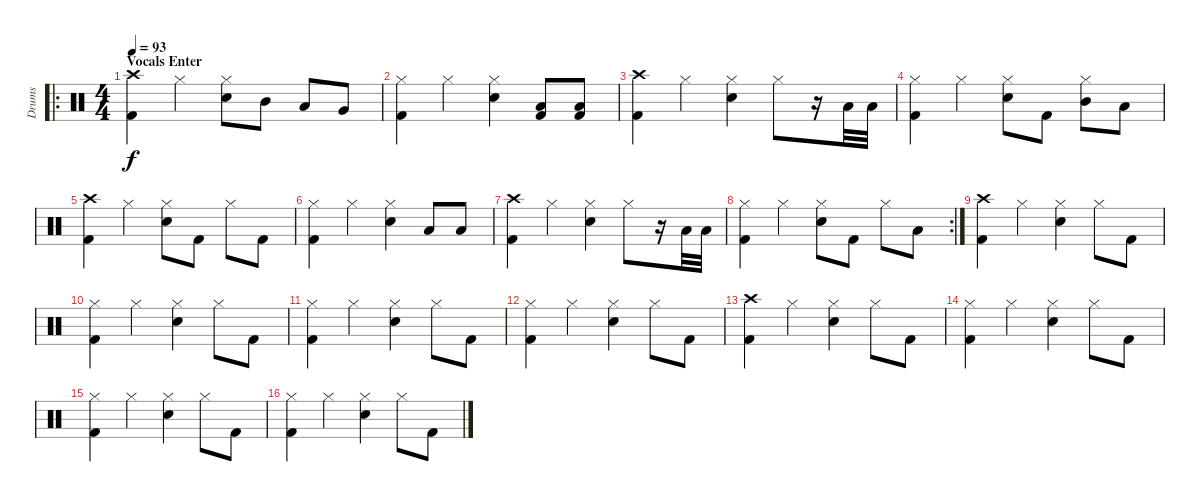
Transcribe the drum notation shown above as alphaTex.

\track ("Drums" "Drums") {instrument percussion}
\staff {score}
\articulation defaults
\ro
\ts (4 4)
\section ("" "Vocals Enter")
\tempo 93
\clef neutral
\ks c
("Crash high (hit)" "Kick (hit) 2").4{dy f} "Hi-Hat (closed)".4 ("Hi-Hat (closed)" "Snare (hit) 2").8 "Mid Tom (hit)".8 "Low Tom (hit)".8 "Very Low Tom (hit)".8 |
("Hi-Hat (closed)" "Kick (hit) 2").4 "Hi-Hat (closed)".4 ("Hi-Hat (closed)" "Snare (hit) 2").4 ("Low Tom (hit)" "Kick (hit) 2").8 ("Low Tom (hit)" "Kick (hit) 2").8 |
("Crash high (hit)" "Kick (hit) 2").4 "Hi-Hat (closed)".4 ("Hi-Hat (closed)" "Snare (hit) 2").4 "Hi-Hat (closed)".8 r.16 "Low Tom (hit)".32 "Low Tom (hit)".32 |
("Hi-Hat (closed)" "Kick (hit) 2").4 "Hi-Hat (closed)".4 ("Hi-Hat (closed)" "Snare (hit) 2").8 "Kick (hit) 2".8 ("Hi-Hat (closed)" "Mid Tom (hit)").8 "Low Tom (hit)".8 |
("Crash high (hit)" "Kick (hit) 2").4 "Hi-Hat (closed)".4 ("Hi-Hat (closed)" "Snare (hit) 2").8 "Kick (hit) 2".8 "Hi-Hat (closed)".8 "Kick (hit) 2".8 |
("Hi-Hat (closed)" "Kick (hit) 2").4 "Hi-Hat (closed)".4 ("Hi-Hat (closed)" "Snare (hit) 2").4 "Low Tom (hit)".8 "Low Tom (hit)".8 |
("Crash high (hit)" "Kick (hit) 2").4 "Hi-Hat (closed)".4 ("Hi-Hat (closed)" "Snare (hit) 2").4 "Hi-Hat (closed)".8 r.16 "Low Tom (hit)".32 "Low Tom (hit)".32 |
\rc 2
("Hi-Hat (closed)" "Kick (hit) 2").4 "Hi-Hat (closed)".4 ("Hi-Hat (closed)" "Snare (hit) 2").8 "Kick (hit) 2".8 "Hi-Hat (closed)".8 "Low Tom (hit)".8 |
("Crash high (hit)" "Kick (hit) 2").4 "Hi-Hat (closed)".4 ("Hi-Hat (closed)" "Snare (hit) 2").4 "Hi-Hat (closed)".8 "Kick (hit) 2".8 |
("Hi-Hat (closed)" "Kick (hit) 2").4 "Hi-Hat (closed)".4 ("Hi-Hat (closed)" "Snare (hit) 2").4 "Hi-Hat (closed)".8 "Kick (hit) 2".8 |
("Hi-Hat (closed)" "Kick (hit) 2").4 "Hi-Hat (closed)".4 ("Hi-Hat (closed)" "Snare (hit) 2").4 "Hi-Hat (closed)".8 "Kick (hit) 2".8 |
("Hi-Hat (closed)" "Kick (hit) 2").4 "Hi-Hat (closed)".4 ("Hi-Hat (closed)" "Snare (hit) 2").4 "Hi-Hat (closed)".8 "Kick (hit) 2".8 |
("Crash high (hit)" "Kick (hit) 2").4 "Hi-Hat (closed)".4 ("Hi-Hat (closed)" "Snare (hit) 2").4 "Hi-Hat (closed)".8 "Kick (hit) 2".8 |
("Hi-Hat (closed)" "Kick (hit) 2").4 "Hi-Hat (closed)".4 ("Hi-Hat (closed)" "Snare (hit) 2").4 "Hi-Hat (closed)".8 "Kick (hit) 2".8 |
("Hi-Hat (closed)" "Kick (hit) 2").4 "Hi-Hat (closed)".4 ("Hi-Hat (closed)" "Snare (hit) 2").4 "Hi-Hat (closed)".8 "Kick (hit) 2".8 |
("Hi-Hat (closed)" "Kick (hit) 2").4 "Hi-Hat (closed)".4 ("Hi-Hat (closed)" "Snare (hit) 2").4 "Hi-Hat (closed)".8 "Kick (hit) 2".8
